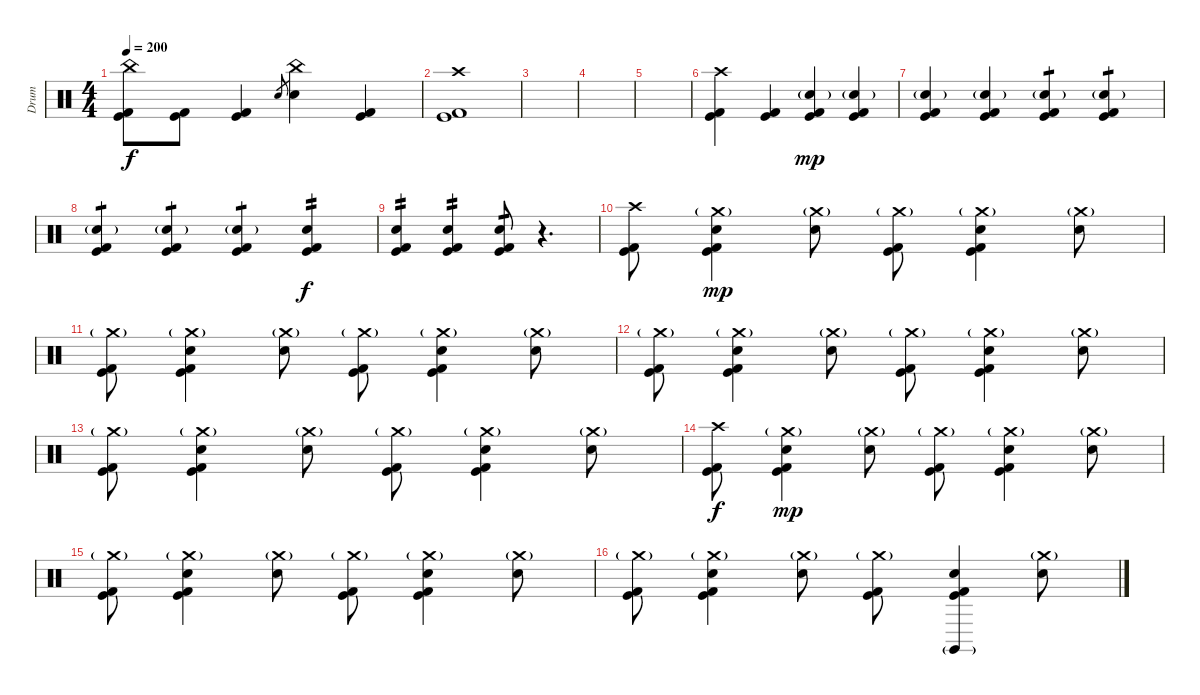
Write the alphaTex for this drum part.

\track ("Drum" "Drum") {instrument percussion}
\staff {score}
\articulation defaults
\ts (4 4)
\tempo 200
\clef neutral
\ks c
("China (hit)" "Kick (hit)" "Kick (hit) 2").8{dy f} ("Kick (hit)" "Kick (hit) 2").8 ("Kick (hit)" "Kick (hit) 2").4 "Electric Snare (hit)".8{gr} ("China (hit)" "Electric Snare (hit)").4 ("Kick (hit)" "Kick (hit) 2").4 |
("Crash high (hit)" "Kick (hit)" "Kick (hit) 2").1 |
|
|
|
("Crash high (hit)" "Kick (hit)" "Kick (hit) 2").4{volume 16} ("Kick (hit)" "Kick (hit) 2").4 ("Electric Snare (hit)"{g} "Kick (hit)" "Kick (hit) 2").4{dy mp} ("Electric Snare (hit)"{g} "Kick (hit)" "Kick (hit) 2").4 |
("Electric Snare (hit)"{g} "Kick (hit)" "Kick (hit) 2").4 ("Electric Snare (hit)"{g} "Kick (hit)" "Kick (hit) 2").4 ("Electric Snare (hit)"{g} "Kick (hit)" "Kick (hit) 2").4{tp 1} ("Electric Snare (hit)"{g} "Kick (hit)" "Kick (hit) 2").4{tp 1} |
("Electric Snare (hit)"{g} "Kick (hit)" "Kick (hit) 2").4{tp 1} ("Electric Snare (hit)"{g} "Kick (hit)" "Kick (hit) 2").4{tp 1} ("Electric Snare (hit)"{g} "Kick (hit)" "Kick (hit) 2").4{tp 1} ("Electric Snare (hit)" "Kick (hit)" "Kick (hit) 2").4{tp 2 dy f} |
("Electric Snare (hit)" "Kick (hit)" "Kick (hit) 2").4{tp 2} ("Electric Snare (hit)" "Kick (hit)" "Kick (hit) 2").4{tp 2} ("Electric Snare (hit)" "Kick (hit)" "Kick (hit) 2").8{tp 1} r.4{d} |
("Crash high (hit)" "Kick (hit)" "Kick (hit) 2").8 ("Crash medium (hit)"{g} "Electric Snare (hit)" "Kick (hit)" "Kick (hit) 2").4{dy mp} ("Crash medium (hit)"{g} "Electric Snare (hit)").8 ("Crash medium (hit)"{g} "Kick (hit)" "Kick (hit) 2").8 ("Crash medium (hit)"{g} "Electric Snare (hit)" "Kick (hit)" "Kick (hit) 2").4 ("Crash medium (hit)"{g} "Electric Snare (hit)").8 |
("Crash medium (hit)"{g} "Kick (hit)" "Kick (hit) 2").8 ("Crash medium (hit)"{g} "Electric Snare (hit)" "Kick (hit)" "Kick (hit) 2").4 ("Crash medium (hit)"{g} "Electric Snare (hit)").8 ("Crash medium (hit)"{g} "Kick (hit)" "Kick (hit) 2").8 ("Crash medium (hit)"{g} "Electric Snare (hit)" "Kick (hit)" "Kick (hit) 2").4 ("Crash medium (hit)"{g} "Electric Snare (hit)").8 |
("Crash medium (hit)"{g} "Kick (hit)" "Kick (hit) 2").8 ("Crash medium (hit)"{g} "Electric Snare (hit)" "Kick (hit)" "Kick (hit) 2").4 ("Crash medium (hit)"{g} "Electric Snare (hit)").8 ("Crash medium (hit)"{g} "Kick (hit)" "Kick (hit) 2").8 ("Crash medium (hit)"{g} "Electric Snare (hit)" "Kick (hit)" "Kick (hit) 2").4 ("Crash medium (hit)"{g} "Electric Snare (hit)").8 |
("Crash medium (hit)"{g} "Kick (hit)" "Kick (hit) 2").8 ("Crash medium (hit)"{g} "Electric Snare (hit)" "Kick (hit)" "Kick (hit) 2").4 ("Crash medium (hit)"{g} "Electric Snare (hit)").8 ("Crash medium (hit)"{g} "Kick (hit)" "Kick (hit) 2").8 ("Crash medium (hit)"{g} "Electric Snare (hit)" "Kick (hit)" "Kick (hit) 2").4 ("Crash medium (hit)"{g} "Electric Snare (hit)").8 |
("Crash high (hit)" "Kick (hit)" "Kick (hit) 2").8{dy f} ("Crash medium (hit)"{g} "Electric Snare (hit)" "Kick (hit)" "Kick (hit) 2").4{dy mp} ("Crash medium (hit)"{g} "Electric Snare (hit)").8 ("Crash medium (hit)"{g} "Kick (hit)" "Kick (hit) 2").8 ("Crash medium (hit)"{g} "Electric Snare (hit)" "Kick (hit)" "Kick (hit) 2").4 ("Crash medium (hit)"{g} "Electric Snare (hit)").8 |
("Crash medium (hit)"{g} "Kick (hit)" "Kick (hit) 2").8 ("Crash medium (hit)"{g} "Electric Snare (hit)" "Kick (hit)" "Kick (hit) 2").4 ("Crash medium (hit)"{g} "Electric Snare (hit)").8 ("Crash medium (hit)"{g} "Kick (hit)" "Kick (hit) 2").8 ("Crash medium (hit)"{g} "Electric Snare (hit)" "Kick (hit)" "Kick (hit) 2").4 ("Crash medium (hit)"{g} "Electric Snare (hit)").8 |
("Crash medium (hit)"{g} "Kick (hit)" "Kick (hit) 2").8 ("Crash medium (hit)"{g} "Electric Snare (hit)" "Kick (hit)" "Kick (hit) 2").4 ("Crash medium (hit)"{g} "Electric Snare (hit)").8 ("Crash medium (hit)"{g} "Kick (hit)" "Kick (hit) 2").8 ("Claves (hit)"{g} "Electric Snare (hit)" "Kick (hit)" "Kick (hit) 2").4 ("Crash medium (hit)"{g} "Electric Snare (hit)").8
